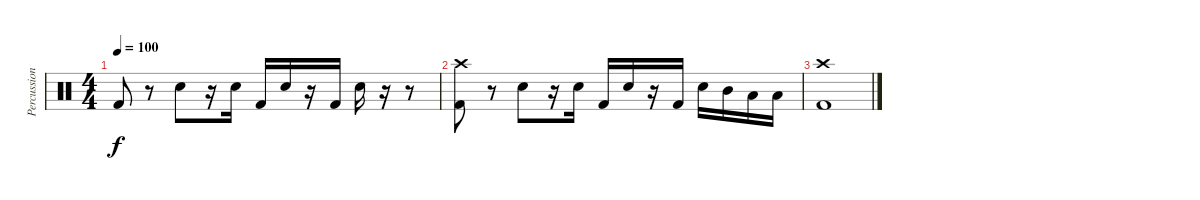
\track ("Percussion" "Percussion") {instrument percussion}
\staff {score}
\articulation defaults
\ts (4 4)
\tempo 100
\clef neutral
\ks c "Kick (hit) 2".8{dy f}
r.8 "Electric Snare (hit)".8 r.16 "Electric Snare (hit)".16 "Kick (hit) 2".16 "Electric Snare (hit)".16 r.16 "Kick (hit) 2".16 "Electric Snare (hit)".16 r.16 r.8 |
("Crash high (hit)" "Kick (hit) 2").8 r.8 "Electric Snare (hit)".8 r.16 "Electric Snare (hit)".16 "Kick (hit) 2".16 "Electric Snare (hit)".16 r.16 "Kick (hit) 2".16 "Electric Snare (hit)".16 "Mid Tom (hit)".16 "Low Tom (hit)".16 "Low Floor Tom (hit)".16 |
("Crash high (hit)" "Kick (hit) 2").1
